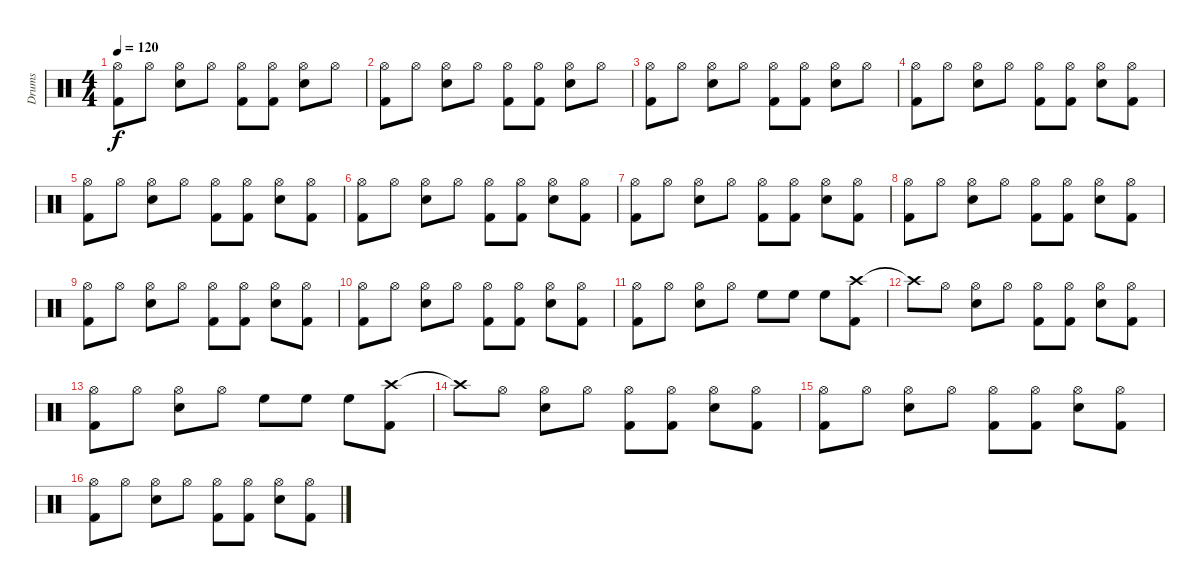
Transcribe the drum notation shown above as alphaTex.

\track ("Drums" "Drums") {instrument percussion}
\staff {score}
\articulation defaults
\ts (4 4)
\tempo 120
\clef neutral
\ks c
("Hi-Hat (open)" "Kick (hit) 2").8{dy f} "Hi-Hat (open)".8 ("Hi-Hat (open)" "Snare (hit) 2").8 "Hi-Hat (open)".8 ("Hi-Hat (open)" "Kick (hit) 2").8 ("Hi-Hat (open)" "Kick (hit) 2").8 ("Hi-Hat (open)" "Snare (hit) 2").8 "Hi-Hat (open)".8 |
("Hi-Hat (open)" "Kick (hit) 2").8 "Hi-Hat (open)".8 ("Hi-Hat (open)" "Snare (hit) 2").8 "Hi-Hat (open)".8 ("Hi-Hat (open)" "Kick (hit) 2").8 ("Hi-Hat (open)" "Kick (hit) 2").8 ("Hi-Hat (open)" "Snare (hit) 2").8 "Hi-Hat (open)".8 |
("Hi-Hat (open)" "Kick (hit) 2").8 "Hi-Hat (open)".8 ("Hi-Hat (open)" "Snare (hit) 2").8 "Hi-Hat (open)".8 ("Hi-Hat (open)" "Kick (hit) 2").8 ("Hi-Hat (open)" "Kick (hit) 2").8 ("Hi-Hat (open)" "Snare (hit) 2").8 "Hi-Hat (open)".8 |
("Hi-Hat (open)" "Kick (hit) 2").8 "Hi-Hat (open)".8 ("Hi-Hat (open)" "Snare (hit) 2").8 "Hi-Hat (open)".8 ("Hi-Hat (open)" "Kick (hit) 2").8 ("Hi-Hat (open)" "Kick (hit) 2").8 ("Hi-Hat (open)" "Snare (hit) 2").8 ("Hi-Hat (open)" "Kick (hit) 2").8 |
("Hi-Hat (open)" "Kick (hit) 2").8 "Hi-Hat (open)".8 ("Hi-Hat (open)" "Snare (hit) 2").8 "Hi-Hat (open)".8 ("Hi-Hat (open)" "Kick (hit) 2").8 ("Hi-Hat (open)" "Kick (hit) 2").8 ("Hi-Hat (open)" "Snare (hit) 2").8 ("Hi-Hat (open)" "Kick (hit) 2").8 |
("Hi-Hat (open)" "Kick (hit) 2").8 "Hi-Hat (open)".8 ("Hi-Hat (open)" "Snare (hit) 2").8 "Hi-Hat (open)".8 ("Hi-Hat (open)" "Kick (hit) 2").8 ("Hi-Hat (open)" "Kick (hit) 2").8 ("Hi-Hat (open)" "Snare (hit) 2").8 ("Hi-Hat (open)" "Kick (hit) 2").8 |
("Hi-Hat (open)" "Kick (hit) 2").8 "Hi-Hat (open)".8 ("Hi-Hat (open)" "Snare (hit) 2").8 "Hi-Hat (open)".8 ("Hi-Hat (open)" "Kick (hit) 2").8 ("Hi-Hat (open)" "Kick (hit) 2").8 ("Hi-Hat (open)" "Snare (hit) 2").8 ("Hi-Hat (open)" "Kick (hit) 2").8 |
("Hi-Hat (open)" "Kick (hit) 2").8 "Hi-Hat (open)".8 ("Hi-Hat (open)" "Snare (hit) 2").8 "Hi-Hat (open)".8 ("Hi-Hat (open)" "Kick (hit) 2").8 ("Hi-Hat (open)" "Kick (hit) 2").8 ("Hi-Hat (open)" "Snare (hit) 2").8 ("Hi-Hat (open)" "Kick (hit) 2").8 |
("Hi-Hat (open)" "Kick (hit) 2").8 "Hi-Hat (open)".8 ("Hi-Hat (open)" "Snare (hit) 2").8 "Hi-Hat (open)".8 ("Hi-Hat (open)" "Kick (hit) 2").8 ("Hi-Hat (open)" "Kick (hit) 2").8 ("Hi-Hat (open)" "Snare (hit) 2").8 ("Hi-Hat (open)" "Kick (hit) 2").8 |
("Hi-Hat (open)" "Kick (hit) 2").8 "Hi-Hat (open)".8 ("Hi-Hat (open)" "Snare (hit) 2").8 "Hi-Hat (open)".8 ("Hi-Hat (open)" "Kick (hit) 2").8 ("Hi-Hat (open)" "Kick (hit) 2").8 ("Hi-Hat (open)" "Snare (hit) 2").8 ("Hi-Hat (open)" "Kick (hit) 2").8 |
("Hi-Hat (open)" "Kick (hit) 2").8 "Hi-Hat (open)".8 ("Hi-Hat (open)" "Snare (hit) 2").8 "Hi-Hat (open)".8 "High Floor Tom (hit)".8 "High Floor Tom (hit)".8 "High Floor Tom (hit)".8 ("Crash high (hit)" "Kick (hit) 2").8 |
"Crash high (hit)"{t}.8 "Hi-Hat (open)".8 ("Hi-Hat (open)" "Snare (hit) 2").8 "Hi-Hat (open)".8 ("Hi-Hat (open)" "Kick (hit) 2").8 ("Hi-Hat (open)" "Kick (hit) 2").8 ("Hi-Hat (open)" "Snare (hit) 2").8 ("Hi-Hat (open)" "Kick (hit) 2").8 |
("Hi-Hat (open)" "Kick (hit) 2").8 "Hi-Hat (open)".8 ("Hi-Hat (open)" "Snare (hit) 2").8 "Hi-Hat (open)".8 "High Floor Tom (hit)".8 "High Floor Tom (hit)".8 "High Floor Tom (hit)".8 ("Crash high (hit)" "Kick (hit) 2").8 |
"Crash high (hit)"{t}.8 "Hi-Hat (open)".8 ("Hi-Hat (open)" "Snare (hit) 2").8 "Hi-Hat (open)".8 ("Hi-Hat (open)" "Kick (hit) 2").8 ("Hi-Hat (open)" "Kick (hit) 2").8 ("Hi-Hat (open)" "Snare (hit) 2").8 ("Hi-Hat (open)" "Kick (hit) 2").8 |
("Hi-Hat (open)" "Kick (hit) 2").8 "Hi-Hat (open)".8 ("Hi-Hat (open)" "Snare (hit) 2").8 "Hi-Hat (open)".8 ("Hi-Hat (open)" "Kick (hit) 2").8 ("Hi-Hat (open)" "Kick (hit) 2").8 ("Hi-Hat (open)" "Snare (hit) 2").8 ("Hi-Hat (open)" "Kick (hit) 2").8 |
("Hi-Hat (open)" "Kick (hit) 2").8 "Hi-Hat (open)".8 ("Hi-Hat (open)" "Snare (hit) 2").8 "Hi-Hat (open)".8 ("Hi-Hat (open)" "Kick (hit) 2").8 ("Hi-Hat (open)" "Kick (hit) 2").8 ("Hi-Hat (open)" "Snare (hit) 2").8 ("Hi-Hat (open)" "Kick (hit) 2").8
